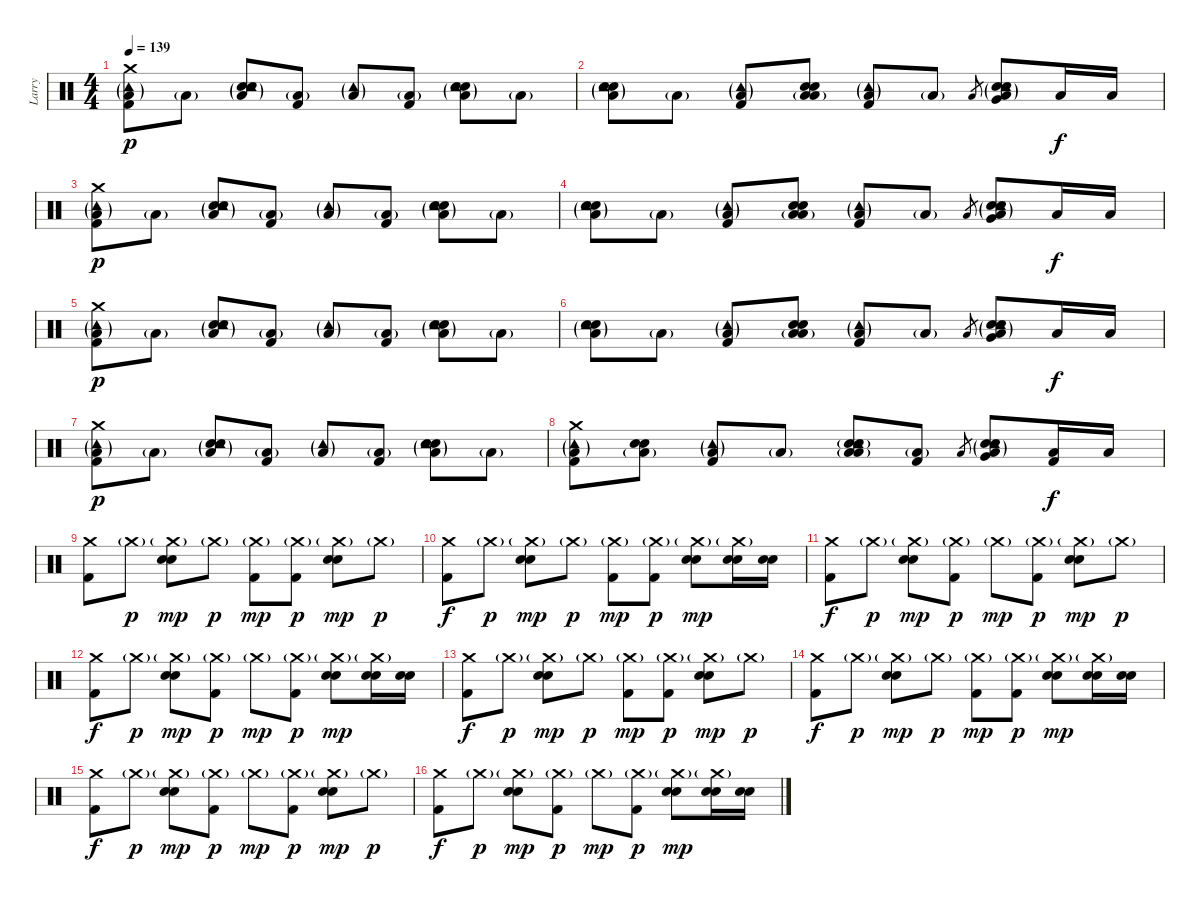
\track ("Larry" "Larry") {instrument percussion}
\staff {score}
\articulation defaults
\ts (4 4)
\tempo 139
\clef neutral
\ks c
("Crash medium (hit)" "Kick (hit) 2" "Tambourine (hit)"{g} "Low Floor Tom (hit)"{g}).8{dy p} "Low Floor Tom (hit)"{g}.8 ("Snare (hit) 2" "Electric Snare (hit)" "Tambourine (hit)"{g} "Low Floor Tom (hit)"{g}).8 ("Kick (hit) 2" "Low Floor Tom (hit)"{g}).8 ("Tambourine (hit)"{g} "Low Floor Tom (hit)"{g}).8 ("Kick (hit) 2" "Low Floor Tom (hit)"{g}).8 ("Snare (hit) 2" "Electric Snare (hit)" "Tambourine (hit)"{g} "Low Floor Tom (hit)"{g}).8 "Low Floor Tom (hit)"{g}.8 |
("Snare (hit) 2" "Electric Snare (hit)" "Tambourine (hit)"{g} "Low Floor Tom (hit)"{g}).8 "Low Floor Tom (hit)"{g}.8 ("Kick (hit) 2" "Tambourine (hit)"{g} "Low Floor Tom (hit)"{g}).8 ("Snare (hit) 2" "Low Tom (hit)" "Electric Snare (hit)" "Low Floor Tom (hit)"{g}).8 ("Kick (hit) 2" "Tambourine (hit)"{g} "Low Floor Tom (hit)"{g}).8 "Low Floor Tom (hit)"{g}.8 "Low Floor Tom (hit)".8{gr} ("Snare (hit) 2" "Very Low Tom (hit)" "Electric Snare (hit)" "Tambourine (hit)"{g} "Low Floor Tom (hit)"{g}).8 "Low Floor Tom (hit)".16{dy f} "Low Floor Tom (hit)".16 |
("Crash medium (hit)" "Kick (hit) 2" "Tambourine (hit)"{g} "Low Floor Tom (hit)"{g}).8{dy p} "Low Floor Tom (hit)"{g}.8 ("Snare (hit) 2" "Electric Snare (hit)" "Tambourine (hit)"{g} "Low Floor Tom (hit)"{g}).8 ("Kick (hit) 2" "Low Floor Tom (hit)"{g}).8 ("Tambourine (hit)"{g} "Low Floor Tom (hit)"{g}).8 ("Kick (hit) 2" "Low Floor Tom (hit)"{g}).8 ("Snare (hit) 2" "Electric Snare (hit)" "Tambourine (hit)"{g} "Low Floor Tom (hit)"{g}).8 "Low Floor Tom (hit)"{g}.8 |
("Snare (hit) 2" "Electric Snare (hit)" "Tambourine (hit)"{g} "Low Floor Tom (hit)"{g}).8 "Low Floor Tom (hit)"{g}.8 ("Kick (hit) 2" "Tambourine (hit)"{g} "Low Floor Tom (hit)"{g}).8 ("Snare (hit) 2" "Low Tom (hit)" "Electric Snare (hit)" "Low Floor Tom (hit)"{g}).8 ("Kick (hit) 2" "Tambourine (hit)"{g} "Low Floor Tom (hit)"{g}).8 "Low Floor Tom (hit)"{g}.8 "Low Floor Tom (hit)".8{gr} ("Snare (hit) 2" "Very Low Tom (hit)" "Electric Snare (hit)" "Tambourine (hit)"{g} "Low Floor Tom (hit)"{g}).8 "Low Floor Tom (hit)".16{dy f} "Low Floor Tom (hit)".16 |
("Crash medium (hit)" "Kick (hit) 2" "Tambourine (hit)"{g} "Low Floor Tom (hit)"{g}).8{dy p} "Low Floor Tom (hit)"{g}.8 ("Snare (hit) 2" "Electric Snare (hit)" "Tambourine (hit)"{g} "Low Floor Tom (hit)"{g}).8 ("Kick (hit) 2" "Low Floor Tom (hit)"{g}).8 ("Tambourine (hit)"{g} "Low Floor Tom (hit)"{g}).8 ("Kick (hit) 2" "Low Floor Tom (hit)"{g}).8 ("Snare (hit) 2" "Electric Snare (hit)" "Tambourine (hit)"{g} "Low Floor Tom (hit)"{g}).8 "Low Floor Tom (hit)"{g}.8 |
("Snare (hit) 2" "Electric Snare (hit)" "Tambourine (hit)"{g} "Low Floor Tom (hit)"{g}).8 "Low Floor Tom (hit)"{g}.8 ("Kick (hit) 2" "Tambourine (hit)"{g} "Low Floor Tom (hit)"{g}).8 ("Snare (hit) 2" "Low Tom (hit)" "Electric Snare (hit)" "Low Floor Tom (hit)"{g}).8 ("Kick (hit) 2" "Tambourine (hit)"{g} "Low Floor Tom (hit)"{g}).8 "Low Floor Tom (hit)"{g}.8 "Low Floor Tom (hit)".8{gr} ("Snare (hit) 2" "Very Low Tom (hit)" "Electric Snare (hit)" "Tambourine (hit)"{g} "Low Floor Tom (hit)"{g}).8 "Low Floor Tom (hit)".16{dy f} "Low Floor Tom (hit)".16 |
("Crash medium (hit)" "Kick (hit) 2" "Tambourine (hit)"{g} "Low Floor Tom (hit)"{g}).8{dy p} "Low Floor Tom (hit)"{g}.8 ("Snare (hit) 2" "Electric Snare (hit)" "Tambourine (hit)"{g} "Low Floor Tom (hit)"{g}).8 ("Kick (hit) 2" "Low Floor Tom (hit)"{g}).8 ("Tambourine (hit)"{g} "Low Floor Tom (hit)"{g}).8 ("Kick (hit) 2" "Low Floor Tom (hit)"{g}).8 ("Snare (hit) 2" "Electric Snare (hit)" "Tambourine (hit)"{g} "Low Floor Tom (hit)"{g}).8 "Low Floor Tom (hit)"{g}.8 |
("Crash medium (hit)" "Kick (hit) 2" "Tambourine (hit)"{g} "Low Floor Tom (hit)"{g}).8 ("Snare (hit) 2" "Electric Snare (hit)" "Low Floor Tom (hit)"{g}).8 ("Kick (hit) 2" "Tambourine (hit)"{g} "Low Floor Tom (hit)"{g}).8 "Low Floor Tom (hit)"{g}.8 ("Snare (hit) 2" "Low Tom (hit)" "Electric Snare (hit)" "Tambourine (hit)"{g} "Low Floor Tom (hit)"{g}).8 ("Kick (hit) 2" "Low Floor Tom (hit)"{g}).8 "Low Floor Tom (hit)".8{gr} ("Snare (hit) 2" "Very Low Tom (hit)" "Electric Snare (hit)" "Tambourine (hit)"{g} "Low Floor Tom (hit)"{g}).8 ("Kick (hit) 2" "Low Floor Tom (hit)").16{dy f} "Low Floor Tom (hit)".16 |
("Crash medium (hit)" "Kick (hit) 2").8 "Crash medium (hit)"{g}.8{dy p} ("Crash medium (hit)"{g} "Snare (hit) 2" "Electric Snare (hit)").8{dy mp} "Crash medium (hit)"{g}.8{dy p} ("Crash medium (hit)"{g} "Kick (hit) 2").8{dy mp} ("Crash medium (hit)"{g} "Kick (hit) 2").8{dy p} ("Crash medium (hit)"{g} "Snare (hit) 2" "Electric Snare (hit)").8{dy mp} "Crash medium (hit)"{g}.8{dy p} |
("Crash medium (hit)" "Kick (hit) 2").8{dy f} "Crash medium (hit)"{g}.8{dy p} ("Crash medium (hit)"{g} "Snare (hit) 2" "Electric Snare (hit)").8{dy mp} "Crash medium (hit)"{g}.8{dy p} ("Crash medium (hit)"{g} "Kick (hit) 2").8{dy mp} ("Crash medium (hit)"{g} "Kick (hit) 2").8{dy p} ("Crash medium (hit)"{g} "Snare (hit) 2" "Electric Snare (hit)").8{dy mp} ("Crash medium (hit)"{g} "Snare (hit) 2" "Electric Snare (hit)").16 ("Snare (hit) 2" "Electric Snare (hit)").16 |
("Crash medium (hit)" "Kick (hit) 2").8{dy f} "Crash medium (hit)"{g}.8{dy p} ("Crash medium (hit)"{g} "Snare (hit) 2" "Electric Snare (hit)").8{dy mp} ("Crash medium (hit)"{g} "Kick (hit) 2").8{dy p} "Crash medium (hit)"{g}.8{dy mp} ("Crash medium (hit)"{g} "Kick (hit) 2").8{dy p} ("Crash medium (hit)"{g} "Snare (hit) 2" "Electric Snare (hit)").8{dy mp} "Crash medium (hit)"{g}.8{dy p} |
("Crash medium (hit)" "Kick (hit) 2").8{dy f} "Crash medium (hit)"{g}.8{dy p} ("Crash medium (hit)"{g} "Snare (hit) 2" "Electric Snare (hit)").8{dy mp} ("Crash medium (hit)"{g} "Kick (hit) 2").8{dy p} "Crash medium (hit)"{g}.8{dy mp} ("Crash medium (hit)"{g} "Kick (hit) 2").8{dy p} ("Crash medium (hit)"{g} "Snare (hit) 2" "Electric Snare (hit)").8{dy mp} ("Crash medium (hit)"{g} "Snare (hit) 2" "Electric Snare (hit)").16 ("Snare (hit) 2" "Electric Snare (hit)").16 |
("Crash medium (hit)" "Kick (hit) 2").8{dy f} "Crash medium (hit)"{g}.8{dy p} ("Crash medium (hit)"{g} "Snare (hit) 2" "Electric Snare (hit)").8{dy mp} "Crash medium (hit)"{g}.8{dy p} ("Crash medium (hit)"{g} "Kick (hit) 2").8{dy mp} ("Crash medium (hit)"{g} "Kick (hit) 2").8{dy p} ("Crash medium (hit)"{g} "Snare (hit) 2" "Electric Snare (hit)").8{dy mp} "Crash medium (hit)"{g}.8{dy p} |
("Crash medium (hit)" "Kick (hit) 2").8{dy f} "Crash medium (hit)"{g}.8{dy p} ("Crash medium (hit)"{g} "Snare (hit) 2" "Electric Snare (hit)").8{dy mp} "Crash medium (hit)"{g}.8{dy p} ("Crash medium (hit)"{g} "Kick (hit) 2").8{dy mp} ("Crash medium (hit)"{g} "Kick (hit) 2").8{dy p} ("Crash medium (hit)"{g} "Snare (hit) 2" "Electric Snare (hit)").8{dy mp} ("Crash medium (hit)"{g} "Snare (hit) 2" "Electric Snare (hit)").16 ("Snare (hit) 2" "Electric Snare (hit)").16 |
("Crash medium (hit)" "Kick (hit) 2").8{dy f} "Crash medium (hit)"{g}.8{dy p} ("Crash medium (hit)"{g} "Snare (hit) 2" "Electric Snare (hit)").8{dy mp} ("Crash medium (hit)"{g} "Kick (hit) 2").8{dy p} "Crash medium (hit)"{g}.8{dy mp} ("Crash medium (hit)"{g} "Kick (hit) 2").8{dy p} ("Crash medium (hit)"{g} "Snare (hit) 2" "Electric Snare (hit)").8{dy mp} "Crash medium (hit)"{g}.8{dy p} |
("Crash medium (hit)" "Kick (hit) 2").8{dy f} "Crash medium (hit)"{g}.8{dy p} ("Crash medium (hit)"{g} "Snare (hit) 2" "Electric Snare (hit)").8{dy mp} ("Crash medium (hit)"{g} "Kick (hit) 2").8{dy p} "Crash medium (hit)"{g}.8{dy mp} ("Crash medium (hit)"{g} "Kick (hit) 2").8{dy p} ("Crash medium (hit)"{g} "Snare (hit) 2" "Electric Snare (hit)").8{dy mp} ("Crash medium (hit)"{g} "Snare (hit) 2" "Electric Snare (hit)").16 ("Snare (hit) 2" "Electric Snare (hit)").16
